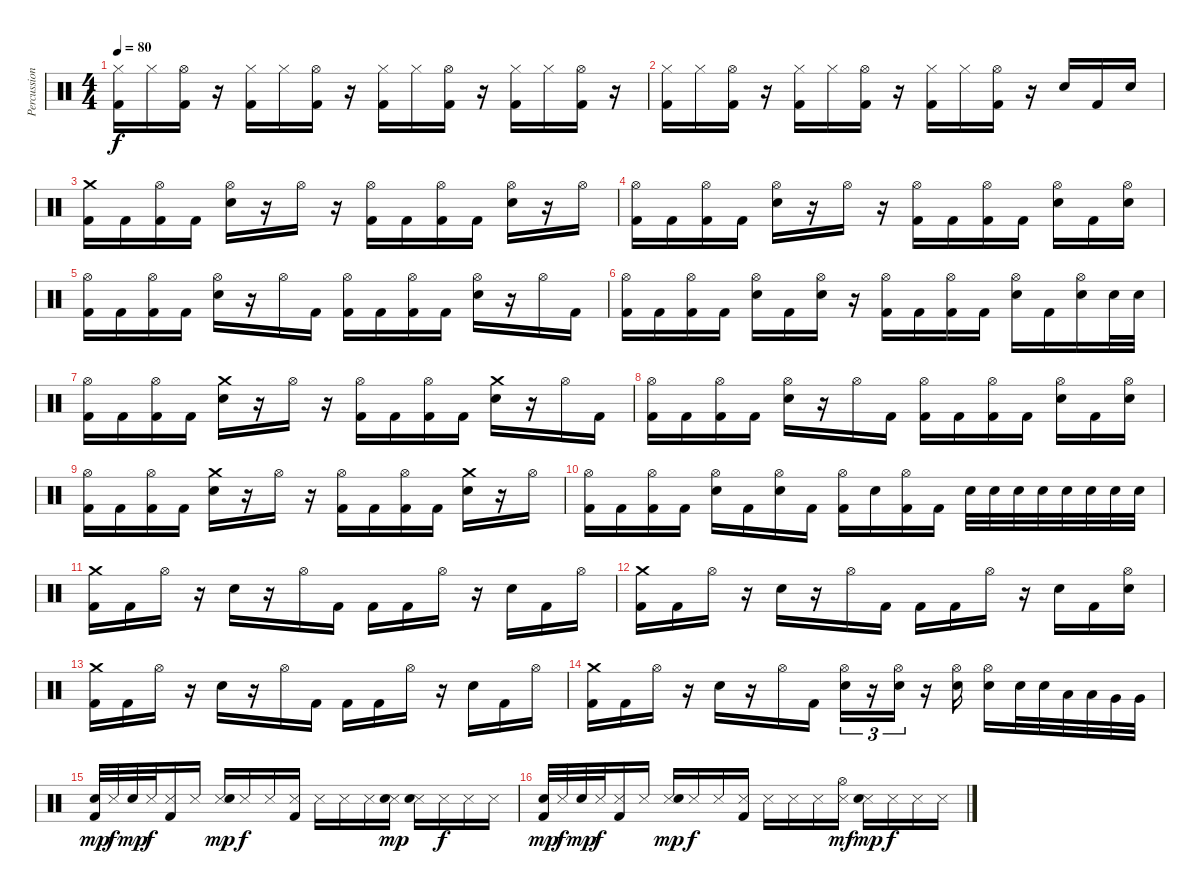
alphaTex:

\track ("Percussion" "Percussion") {instrument percussion}
\staff {score}
\articulation defaults
\ts (4 4)
\tempo 80
\clef neutral
\ks c
("Hi-Hat (closed)" "Kick (hit) 2").16{dy f} "Hi-Hat (closed)".16 ("Hi-Hat (open)" "Kick (hit) 2").16 r.16 ("Hi-Hat (closed)" "Kick (hit) 2").16 "Hi-Hat (closed)".16 ("Hi-Hat (open)" "Kick (hit) 2").16 r.16 ("Hi-Hat (closed)" "Kick (hit) 2").16 "Hi-Hat (closed)".16 ("Hi-Hat (open)" "Kick (hit) 2").16 r.16 ("Hi-Hat (closed)" "Kick (hit) 2").16 "Hi-Hat (closed)".16 ("Hi-Hat (open)" "Kick (hit) 2").16 r.16 |
("Hi-Hat (closed)" "Kick (hit) 2").16 "Hi-Hat (closed)".16 ("Hi-Hat (open)" "Kick (hit) 2").16 r.16 ("Hi-Hat (closed)" "Kick (hit) 2").16 "Hi-Hat (closed)".16 ("Hi-Hat (open)" "Kick (hit) 2").16 r.16 ("Hi-Hat (closed)" "Kick (hit) 2").16 "Hi-Hat (closed)".16 ("Hi-Hat (open)" "Kick (hit) 2").16 r.16 "Electric Snare (hit)".16 "Kick (hit) 2".16 "Electric Snare (hit)".16 |
("Crash medium (hit)" "Kick (hit) 2").16 "Kick (hit) 2".16 ("Hi-Hat (open)" "Kick (hit) 2").16 "Kick (hit) 2".16 ("Hi-Hat (open)" "Electric Snare (hit)").16 r.16 "Hi-Hat (open)".16 r.16 ("Hi-Hat (open)" "Kick (hit) 2").16 "Kick (hit) 2".16 ("Hi-Hat (open)" "Kick (hit) 2").16 "Kick (hit) 2".16 ("Hi-Hat (open)" "Electric Snare (hit)").16 r.16 "Hi-Hat (open)".16 |
("Hi-Hat (open)" "Kick (hit) 2").16 "Kick (hit) 2".16 ("Hi-Hat (open)" "Kick (hit) 2").16 "Kick (hit) 2".16 ("Hi-Hat (open)" "Electric Snare (hit)").16 r.16 "Hi-Hat (open)".16 r.16 ("Hi-Hat (open)" "Kick (hit) 2").16 "Kick (hit) 2".16 ("Hi-Hat (open)" "Kick (hit) 2").16 "Kick (hit) 2".16 ("Hi-Hat (open)" "Electric Snare (hit)").16 "Kick (hit) 2".16 ("Hi-Hat (open)" "Electric Snare (hit)").16 |
("Hi-Hat (open)" "Kick (hit) 2").16 "Kick (hit) 2".16 ("Hi-Hat (open)" "Kick (hit) 2").16 "Kick (hit) 2".16 ("Hi-Hat (open)" "Electric Snare (hit)").16 r.16 "Hi-Hat (open)".16 "Kick (hit) 2".16 ("Hi-Hat (open)" "Kick (hit) 2").16 "Kick (hit) 2".16 ("Hi-Hat (open)" "Kick (hit) 2").16 "Kick (hit) 2".16 ("Hi-Hat (open)" "Electric Snare (hit)").16 r.16 "Hi-Hat (open)".16 "Kick (hit) 2".16 |
("Hi-Hat (open)" "Kick (hit) 2").16 "Kick (hit) 2".16 ("Hi-Hat (open)" "Kick (hit) 2").16 "Kick (hit) 2".16 ("Hi-Hat (open)" "Electric Snare (hit)").16 "Kick (hit) 2".16 ("Hi-Hat (open)" "Electric Snare (hit)").16 r.16 ("Hi-Hat (open)" "Kick (hit) 2").16 "Kick (hit) 2".16 ("Hi-Hat (open)" "Kick (hit) 2").16 "Kick (hit) 2".16 ("Hi-Hat (open)" "Electric Snare (hit)").16 "Kick (hit) 2".16 ("Hi-Hat (open)" "Electric Snare (hit)").16 "Electric Snare (hit)".32 "Electric Snare (hit)".32 |
("Hi-Hat (open)" "Kick (hit) 2").16 "Kick (hit) 2".16 ("Hi-Hat (open)" "Kick (hit) 2").16 "Kick (hit) 2".16 ("Crash medium (hit)" "Electric Snare (hit)").16 r.16 "Hi-Hat (open)".16 r.16 ("Hi-Hat (open)" "Kick (hit) 2").16 "Kick (hit) 2".16 ("Hi-Hat (open)" "Kick (hit) 2").16 "Kick (hit) 2".16 ("Crash medium (hit)" "Electric Snare (hit)").16 r.16 "Hi-Hat (open)".16 "Kick (hit) 2".16 |
("Hi-Hat (open)" "Kick (hit) 2").16 "Kick (hit) 2".16 ("Hi-Hat (open)" "Kick (hit) 2").16 "Kick (hit) 2".16 ("Hi-Hat (open)" "Electric Snare (hit)").16 r.16 "Hi-Hat (open)".16 "Kick (hit) 2".16 ("Hi-Hat (open)" "Kick (hit) 2").16 "Kick (hit) 2".16 ("Hi-Hat (open)" "Kick (hit) 2").16 "Kick (hit) 2".16 ("Hi-Hat (open)" "Electric Snare (hit)").16 "Kick (hit) 2".16 ("Hi-Hat (open)" "Electric Snare (hit)").16 |
("Hi-Hat (open)" "Kick (hit) 2").16 "Kick (hit) 2".16 ("Hi-Hat (open)" "Kick (hit) 2").16 "Kick (hit) 2".16 ("Crash medium (hit)" "Electric Snare (hit)").16 r.16 "Hi-Hat (open)".16 r.16 ("Hi-Hat (open)" "Kick (hit) 2").16 "Kick (hit) 2".16 ("Hi-Hat (open)" "Kick (hit) 2").16 "Kick (hit) 2".16 ("Crash medium (hit)" "Electric Snare (hit)").16 r.16 "Hi-Hat (open)".16 |
("Hi-Hat (open)" "Kick (hit) 2").16 "Kick (hit) 2".16 ("Hi-Hat (open)" "Kick (hit) 2").16 "Kick (hit) 2".16 ("Hi-Hat (open)" "Electric Snare (hit)").16 "Kick (hit) 2".16 ("Hi-Hat (open)" "Electric Snare (hit)").16 "Kick (hit) 2".16 ("Hi-Hat (open)" "Kick (hit) 2").16 "Electric Snare (hit)".16 ("Hi-Hat (open)" "Kick (hit) 2").16 "Kick (hit) 2".16 "Electric Snare (hit)".32 "Electric Snare (hit)".32 "Electric Snare (hit)".32 "Electric Snare (hit)".32 "Electric Snare (hit)".32 "Electric Snare (hit)".32 "Electric Snare (hit)".32 "Electric Snare (hit)".32 |
("Crash medium (hit)" "Kick (hit) 2").16 "Kick (hit) 2".16 "Hi-Hat (open)".16 r.16 "Electric Snare (hit)".16 r.16 "Hi-Hat (open)".16 "Kick (hit) 2".16 "Kick (hit) 2".16 "Kick (hit) 2".16 "Hi-Hat (open)".16 r.16 "Electric Snare (hit)".16 "Kick (hit) 2".16 "Hi-Hat (open)".16 |
("Crash medium (hit)" "Kick (hit) 2").16 "Kick (hit) 2".16 "Hi-Hat (open)".16 r.16 "Electric Snare (hit)".16 r.16 "Hi-Hat (open)".16 "Kick (hit) 2".16 "Kick (hit) 2".16 "Kick (hit) 2".16 "Hi-Hat (open)".16 r.16 "Electric Snare (hit)".16 "Kick (hit) 2".16 ("Hi-Hat (open)" "Electric Snare (hit)").16 |
("Crash medium (hit)" "Kick (hit) 2").16 "Kick (hit) 2".16 "Hi-Hat (open)".16 r.16 "Electric Snare (hit)".16 r.16 "Hi-Hat (open)".16 "Kick (hit) 2".16 "Kick (hit) 2".16 "Kick (hit) 2".16 "Hi-Hat (open)".16 r.16 "Electric Snare (hit)".16 "Kick (hit) 2".16 "Hi-Hat (open)".16 |
("Crash medium (hit)" "Kick (hit) 2").16 "Kick (hit) 2".16 "Hi-Hat (open)".16 r.16 "Electric Snare (hit)".16 r.16 "Hi-Hat (open)".16 "Kick (hit) 2".16 ("Hi-Hat (open)" "Electric Snare (hit)").16{tu (3 2)} r.16{tu (3 2)} ("Hi-Hat (open)" "Electric Snare (hit)").16{tu (3 2)} r.16 ("Hi-Hat (open)" "Electric Snare (hit)").16 ("Hi-Hat (open)" "Electric Snare (hit)").16 "Electric Snare (hit)".32 "Electric Snare (hit)".32 "Low Tom (hit)".32 "Low Tom (hit)".32 "Very Low Tom (hit)".32 "Very Low Tom (hit)".32 |
("Electric Snare (hit)" "Kick (hit) 2").32{dy mp} "Snare (side stick) 3".32{dy f} "Electric Snare (hit)".32{dy mp} "Snare (side stick) 3".32{dy f} ("Snare (side stick) 3" "Kick (hit) 2").16 "Snare (side stick) 3".16 ("Snare (side stick) 3" "Electric Snare (hit)").16{dy mp} "Snare (side stick) 3".16{dy f} "Snare (side stick) 3".16 ("Snare (side stick) 3" "Kick (hit) 2").16 "Snare (side stick) 3".16 "Snare (side stick) 3".16 "Snare (side stick) 3".16 ("Snare (side stick) 3" "Electric Snare (hit)").16{dy mp} ("Snare (side stick) 3" "Electric Snare (hit)").16 "Snare (side stick) 3".16{dy f} "Snare (side stick) 3".16 "Snare (side stick) 3".16 |
("Electric Snare (hit)" "Kick (hit) 2").32{dy mp} "Snare (side stick) 3".32{dy f} "Electric Snare (hit)".32{dy mp} "Snare (side stick) 3".32{dy f} ("Snare (side stick) 3" "Kick (hit) 2").16 "Snare (side stick) 3".16 ("Snare (side stick) 3" "Electric Snare (hit)").16{dy mp} "Snare (side stick) 3".16{dy f} "Snare (side stick) 3".16 ("Snare (side stick) 3" "Kick (hit) 2").16 "Snare (side stick) 3".16 "Snare (side stick) 3".16 "Snare (side stick) 3".16 ("Snare (side stick) 3" "Hi-Hat (open)").16{dy mf} ("Snare (side stick) 3" "Electric Snare (hit)").16{dy mp} "Snare (side stick) 3".16{dy f} "Snare (side stick) 3".16 "Snare (side stick) 3".16
